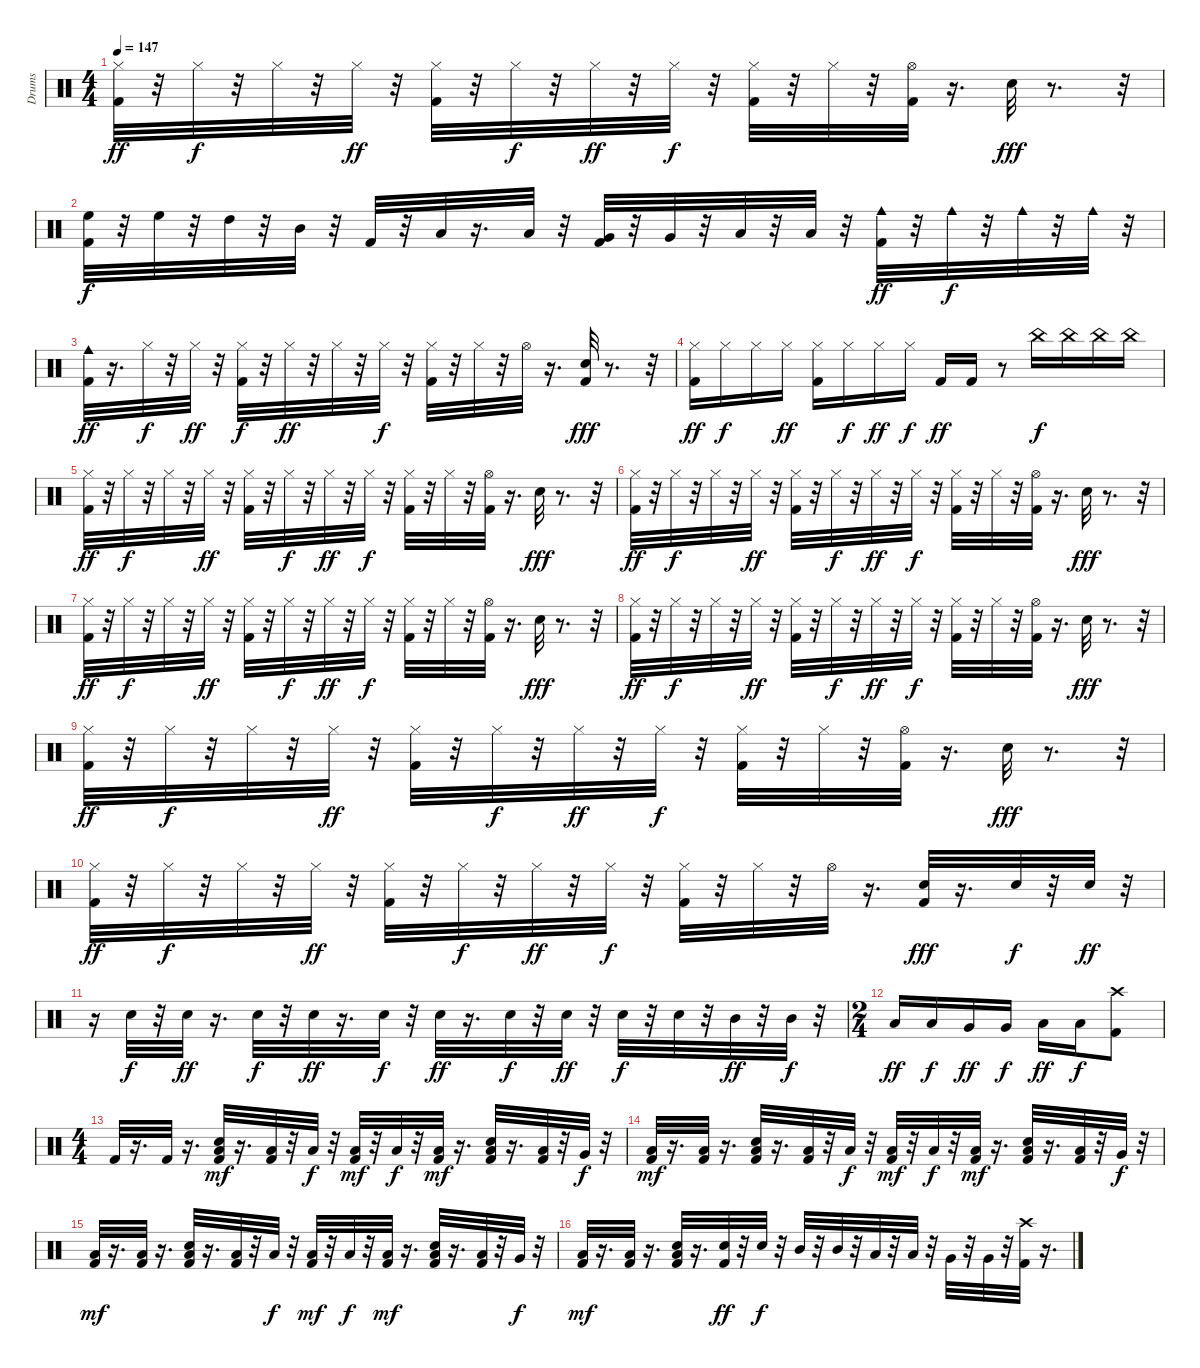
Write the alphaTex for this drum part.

\track ("Drums" "Drums") {instrument percussion}
\staff {score}
\articulation defaults
\ts (4 4)
\tempo 147
\clef neutral
\ks c
("Kick (hit) 2" "Hi-Hat (closed)").32{dy ff} r.32 "Hi-Hat (closed)".32{dy f} r.32 "Hi-Hat (closed)".32 r.32 "Hi-Hat (closed)".32{dy ff} r.32 ("Kick (hit) 2" "Hi-Hat (closed)").32 r.32 "Hi-Hat (closed)".32{dy f} r.32 "Hi-Hat (closed)".32{dy ff} r.32 "Hi-Hat (closed)".32{dy f} r.32 ("Kick (hit) 2" "Hi-Hat (closed)").32 r.32 "Hi-Hat (closed)".32 r.32 ("Hi-Hat (open)" "Kick (hit) 2").32 r.16{d} "Snare (hit) 2".32{dy fff} r.8{d} r.32 |
("High Floor Tom (hit)" "Kick (hit) 2").32{dy f} r.32 "High Floor Tom (hit)".32 r.32 "High Tom (hit)".32 r.32 "Mid Tom (hit)".32 r.32 "Kick (hit) 2".32 r.32 "Low Tom (hit)".32 r.16{d} "Low Tom (hit)".32 r.32 ("Very Low Tom (hit)" "Kick (hit) 2").32 r.32 "Very Low Tom (hit)".32 r.32 "Low Floor Tom (hit)".32 r.32 "Low Floor Tom (hit)".32 r.32 ("Cowbell medium (hit)" "Kick (hit) 2").32{dy ff} r.32 "Cowbell medium (hit)".32{dy f} r.32 "Cowbell medium (hit)".32 r.32 "Cowbell medium (hit)".32 r.32 |
("Kick (hit) 2" "Cowbell medium (hit)").32{dy ff} r.16{d} "Hi-Hat (closed)".32{dy f} r.32 "Hi-Hat (closed)".32{dy ff} r.32 ("Kick (hit) 2" "Hi-Hat (closed)").32{dy f} r.32 "Hi-Hat (closed)".32{dy ff} r.32 "Hi-Hat (closed)".32 r.32 "Hi-Hat (closed)".32{dy f} r.32 ("Kick (hit) 2" "Hi-Hat (closed)").32 r.32 "Hi-Hat (closed)".32 r.32 "Hi-Hat (open)".32 r.16{d} ("Kick (hit) 2" "Snare (hit) 2").32{dy fff} r.8{d} r.32 |
("Kick (hit) 2" "Hi-Hat (closed)").16{dy ff} "Hi-Hat (closed)".16{dy f} "Hi-Hat (closed)".16 "Hi-Hat (closed)".16{dy ff} ("Kick (hit) 2" "Hi-Hat (closed)").16 "Hi-Hat (closed)".16{dy f} "Hi-Hat (closed)".16{dy ff} "Hi-Hat (closed)".16{dy f} "Kick (hit) 2".16{dy ff} "Kick (hit) 2".16 r.8 "China (hit)".16{dy f} "China (hit)".16 "China (hit)".16 "China (hit)".16 |
("Kick (hit) 2" "Hi-Hat (closed)").32{dy ff} r.32 "Hi-Hat (closed)".32{dy f} r.32 "Hi-Hat (closed)".32 r.32 "Hi-Hat (closed)".32{dy ff} r.32 ("Kick (hit) 2" "Hi-Hat (closed)").32 r.32 "Hi-Hat (closed)".32{dy f} r.32 "Hi-Hat (closed)".32{dy ff} r.32 "Hi-Hat (closed)".32{dy f} r.32 ("Kick (hit) 2" "Hi-Hat (closed)").32 r.32 "Hi-Hat (closed)".32 r.32 ("Hi-Hat (open)" "Kick (hit) 2").32 r.16{d} "Snare (hit) 2".32{dy fff} r.8{d} r.32 |
("Kick (hit) 2" "Hi-Hat (closed)").32{dy ff} r.32 "Hi-Hat (closed)".32{dy f} r.32 "Hi-Hat (closed)".32 r.32 "Hi-Hat (closed)".32{dy ff} r.32 ("Kick (hit) 2" "Hi-Hat (closed)").32 r.32 "Hi-Hat (closed)".32{dy f} r.32 "Hi-Hat (closed)".32{dy ff} r.32 "Hi-Hat (closed)".32{dy f} r.32 ("Kick (hit) 2" "Hi-Hat (closed)").32 r.32 "Hi-Hat (closed)".32 r.32 ("Hi-Hat (open)" "Kick (hit) 2").32 r.16{d} "Snare (hit) 2".32{dy fff} r.8{d} r.32 |
("Kick (hit) 2" "Hi-Hat (closed)").32{dy ff} r.32 "Hi-Hat (closed)".32{dy f} r.32 "Hi-Hat (closed)".32 r.32 "Hi-Hat (closed)".32{dy ff} r.32 ("Kick (hit) 2" "Hi-Hat (closed)").32 r.32 "Hi-Hat (closed)".32{dy f} r.32 "Hi-Hat (closed)".32{dy ff} r.32 "Hi-Hat (closed)".32{dy f} r.32 ("Kick (hit) 2" "Hi-Hat (closed)").32 r.32 "Hi-Hat (closed)".32 r.32 ("Hi-Hat (open)" "Kick (hit) 2").32 r.16{d} "Snare (hit) 2".32{dy fff} r.8{d} r.32 |
("Kick (hit) 2" "Hi-Hat (closed)").32{dy ff} r.32 "Hi-Hat (closed)".32{dy f} r.32 "Hi-Hat (closed)".32 r.32 "Hi-Hat (closed)".32{dy ff} r.32 ("Kick (hit) 2" "Hi-Hat (closed)").32 r.32 "Hi-Hat (closed)".32{dy f} r.32 "Hi-Hat (closed)".32{dy ff} r.32 "Hi-Hat (closed)".32{dy f} r.32 ("Kick (hit) 2" "Hi-Hat (closed)").32 r.32 "Hi-Hat (closed)".32 r.32 ("Hi-Hat (open)" "Kick (hit) 2").32 r.16{d} "Snare (hit) 2".32{dy fff} r.8{d} r.32 |
("Kick (hit) 2" "Hi-Hat (closed)").32{dy ff} r.32 "Hi-Hat (closed)".32{dy f} r.32 "Hi-Hat (closed)".32 r.32 "Hi-Hat (closed)".32{dy ff} r.32 ("Kick (hit) 2" "Hi-Hat (closed)").32 r.32 "Hi-Hat (closed)".32{dy f} r.32 "Hi-Hat (closed)".32{dy ff} r.32 "Hi-Hat (closed)".32{dy f} r.32 ("Kick (hit) 2" "Hi-Hat (closed)").32 r.32 "Hi-Hat (closed)".32 r.32 ("Hi-Hat (open)" "Kick (hit) 2").32 r.16{d} "Snare (hit) 2".32{dy fff} r.8{d} r.32 |
("Kick (hit) 2" "Hi-Hat (closed)").32{dy ff} r.32 "Hi-Hat (closed)".32{dy f} r.32 "Hi-Hat (closed)".32 r.32 "Hi-Hat (closed)".32{dy ff} r.32 ("Kick (hit) 2" "Hi-Hat (closed)").32 r.32 "Hi-Hat (closed)".32{dy f} r.32 "Hi-Hat (closed)".32{dy ff} r.32 "Hi-Hat (closed)".32{dy f} r.32 ("Kick (hit) 2" "Hi-Hat (closed)").32 r.32 "Hi-Hat (closed)".32 r.32 "Hi-Hat (open)".32 r.16{d} ("Kick (hit) 2" "Snare (hit) 2").32{dy fff} r.16{d} "Snare (hit) 2".32{dy f} r.32 "Snare (hit) 2".32{dy ff} r.32 |
r.16 "Snare (hit) 2".32{dy f} r.32 "Snare (hit) 2".32{dy ff} r.16{d} "Snare (hit) 2".32{dy f} r.32 "Snare (hit) 2".32{dy ff} r.16{d} "Snare (hit) 2".32{dy f} r.32 "Snare (hit) 2".32{dy ff} r.16{d} "Snare (hit) 2".32{dy f} r.32 "Snare (hit) 2".32{dy ff} r.32 "Snare (hit) 2".32{dy f} r.32 "Snare (hit) 2".32 r.32 "Mid Tom (hit)".32{dy ff} r.32 "Mid Tom (hit)".32{dy f} r.32 |
\ts (2 4)
"Low Tom (hit)".16{dy ff} "Low Tom (hit)".16{dy f} "Very Low Tom (hit)".16{dy ff} "Very Low Tom (hit)".16{dy f} "Low Floor Tom (hit)".16{dy ff} "Low Floor Tom (hit)".16{dy f} ("Crash high (hit)" "Kick (hit) 2").8 |
\ts (4 4)
"Kick (hit) 2".32 r.16{d} "Kick (hit) 2".32 r.16{d} ("Snare (hit) 2" "Low Floor Tom (hit)" "Kick (hit) 2").32{dy mf} r.16{d} ("Low Floor Tom (hit)" "Kick (hit) 2").32 r.32 "Low Tom (hit)".32{dy f} r.32 ("Kick (hit) 2" "Low Floor Tom (hit)").32{dy mf} r.32 "Low Tom (hit)".32{dy f} r.32 ("Kick (hit) 2" "Low Floor Tom (hit)").32{dy mf} r.16{d} ("Snare (hit) 2" "Low Floor Tom (hit)" "Kick (hit) 2").32 r.16{d} ("Kick (hit) 2" "Low Floor Tom (hit)").32 r.32 "Very Low Tom (hit)".32{dy f} r.32 |
("Low Floor Tom (hit)" "Kick (hit) 2").32{dy mf} r.16{d} ("Low Floor Tom (hit)" "Kick (hit) 2").32 r.16{d} ("Snare (hit) 2" "Low Floor Tom (hit)" "Kick (hit) 2").32 r.16{d} ("Low Floor Tom (hit)" "Kick (hit) 2").32 r.32 "Low Tom (hit)".32{dy f} r.32 ("Kick (hit) 2" "Low Floor Tom (hit)").32{dy mf} r.32 "Low Tom (hit)".32{dy f} r.32 ("Kick (hit) 2" "Low Floor Tom (hit)").32{dy mf} r.16{d} ("Snare (hit) 2" "Low Floor Tom (hit)" "Kick (hit) 2").32 r.16{d} ("Kick (hit) 2" "Low Floor Tom (hit)").32 r.32 "Very Low Tom (hit)".32{dy f} r.32 |
("Low Floor Tom (hit)" "Kick (hit) 2").32{dy mf} r.16{d} ("Low Floor Tom (hit)" "Kick (hit) 2").32 r.16{d} ("Snare (hit) 2" "Low Floor Tom (hit)" "Kick (hit) 2").32 r.16{d} ("Low Floor Tom (hit)" "Kick (hit) 2").32 r.32 "Low Tom (hit)".32{dy f} r.32 ("Kick (hit) 2" "Low Floor Tom (hit)").32{dy mf} r.32 "Low Tom (hit)".32{dy f} r.32 ("Kick (hit) 2" "Low Floor Tom (hit)").32{dy mf} r.16{d} ("Snare (hit) 2" "Low Floor Tom (hit)" "Kick (hit) 2").32 r.16{d} ("Kick (hit) 2" "Low Floor Tom (hit)").32 r.32 "Very Low Tom (hit)".32{dy f} r.32 |
("Low Floor Tom (hit)" "Kick (hit) 2").32{dy mf} r.16{d} ("Low Floor Tom (hit)" "Kick (hit) 2").32 r.16{d} ("Snare (hit) 2" "Low Floor Tom (hit)" "Kick (hit) 2").32 r.16{d} ("Snare (hit) 2" "Kick (hit) 2").32{dy ff} r.32 "Snare (hit) 2".32{dy f} r.32 "Mid Tom (hit)".32 r.32 "Mid Tom (hit)".32 r.32 "Low Tom (hit)".32 r.32 "Low Tom (hit)".32 r.32 "Very Low Tom (hit)".32 r.32 "Very Low Tom (hit)".32 r.32 ("Kick (hit) 2" "Crash high (hit)").32 r.16{d}
